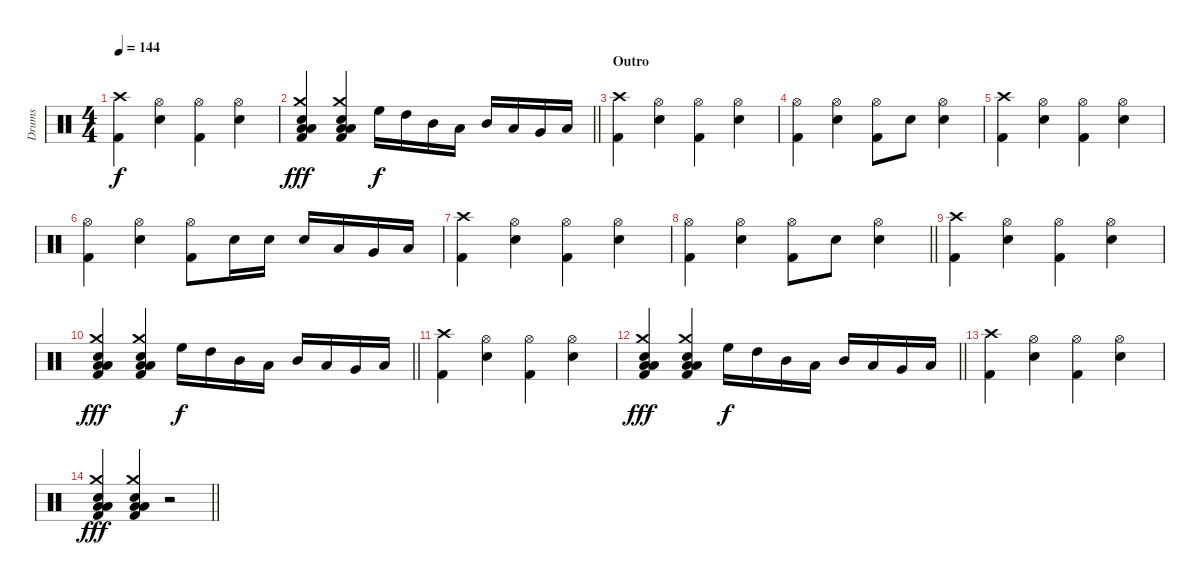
\track ("Drums" "Drums") {instrument percussion}
\staff {score}
\articulation defaults
\ts (4 4)
\tempo 144
\clef neutral
\ks c
("Kick (hit) 2" "Crash high (hit)").4{dy f} ("Hi-Hat (open)" "Snare (hit) 2").4 ("Kick (hit) 2" "Hi-Hat (open)").4 ("Hi-Hat (open)" "Snare (hit) 2").4 |
\barLineRight lightlight
("Kick (hit) 2" "Crash medium (hit)" "Low Floor Tom (hit)" "Low Floor Tom (hit)" "Snare (hit) 2").4{dy fff} ("Kick (hit) 2" "Crash medium (hit)" "Low Floor Tom (hit)" "Low Floor Tom (hit)" "Snare (hit) 2").4 "High Floor Tom (hit)".16{dy f} "High Tom (hit)".16 "Mid Tom (hit)".16 "Low Tom (hit)".16 "Mid Tom (hit)".16 "Low Tom (hit)".16 "Very Low Tom (hit)".16 "Low Floor Tom (hit)".16 |
\section ("" "Outro")
("Kick (hit) 2" "Crash high (hit)").4 ("Hi-Hat (open)" "Snare (hit) 2").4 ("Kick (hit) 2" "Hi-Hat (open)").4 ("Hi-Hat (open)" "Snare (hit) 2").4 |
("Kick (hit) 2" "Hi-Hat (open)").4 ("Hi-Hat (open)" "Snare (hit) 2").4 ("Kick (hit) 2" "Hi-Hat (open)").8 "Snare (hit) 2".8 ("Hi-Hat (open)" "Snare (hit) 2").4 |
("Kick (hit) 2" "Crash high (hit)").4 ("Hi-Hat (open)" "Snare (hit) 2").4 ("Kick (hit) 2" "Hi-Hat (open)").4 ("Hi-Hat (open)" "Snare (hit) 2").4 |
("Kick (hit) 2" "Hi-Hat (open)").4 ("Hi-Hat (open)" "Snare (hit) 2").4 ("Kick (hit) 2" "Hi-Hat (open)").8 "Snare (hit) 2".16 "Snare (hit) 2".16 "Snare (hit) 2".16 "Low Tom (hit)".16 "Very Low Tom (hit)".16 "Low Floor Tom (hit)".16 |
("Kick (hit) 2" "Crash high (hit)").4 ("Hi-Hat (open)" "Snare (hit) 2").4 ("Kick (hit) 2" "Hi-Hat (open)").4 ("Hi-Hat (open)" "Snare (hit) 2").4 |
\barLineRight lightlight
("Kick (hit) 2" "Hi-Hat (open)").4 ("Hi-Hat (open)" "Snare (hit) 2").4 ("Kick (hit) 2" "Hi-Hat (open)").8 "Snare (hit) 2".8 ("Hi-Hat (open)" "Snare (hit) 2").4 |
("Kick (hit) 2" "Crash high (hit)").4 ("Hi-Hat (open)" "Snare (hit) 2").4 ("Kick (hit) 2" "Hi-Hat (open)").4 ("Hi-Hat (open)" "Snare (hit) 2").4 |
\barLineRight lightlight
("Kick (hit) 2" "Crash medium (hit)" "Low Floor Tom (hit)" "Low Floor Tom (hit)" "Snare (hit) 2").4{dy fff} ("Kick (hit) 2" "Crash medium (hit)" "Low Floor Tom (hit)" "Low Floor Tom (hit)" "Snare (hit) 2").4 "High Floor Tom (hit)".16{dy f} "High Tom (hit)".16 "Mid Tom (hit)".16 "Low Tom (hit)".16 "Mid Tom (hit)".16 "Low Tom (hit)".16 "Very Low Tom (hit)".16 "Low Floor Tom (hit)".16 |
("Kick (hit) 2" "Crash high (hit)").4 ("Hi-Hat (open)" "Snare (hit) 2").4 ("Kick (hit) 2" "Hi-Hat (open)").4 ("Hi-Hat (open)" "Snare (hit) 2").4 |
\barLineRight lightlight
("Kick (hit) 2" "Crash medium (hit)" "Low Floor Tom (hit)" "Low Floor Tom (hit)" "Snare (hit) 2").4{dy fff} ("Kick (hit) 2" "Crash medium (hit)" "Low Floor Tom (hit)" "Low Floor Tom (hit)" "Snare (hit) 2").4 "High Floor Tom (hit)".16{dy f} "High Tom (hit)".16 "Mid Tom (hit)".16 "Low Tom (hit)".16 "Mid Tom (hit)".16 "Low Tom (hit)".16 "Very Low Tom (hit)".16 "Low Floor Tom (hit)".16 |
("Kick (hit) 2" "Crash high (hit)").4 ("Hi-Hat (open)" "Snare (hit) 2").4 ("Kick (hit) 2" "Hi-Hat (open)").4 ("Hi-Hat (open)" "Snare (hit) 2").4 |
\barLineRight lightlight
("Kick (hit) 2" "Crash medium (hit)" "Low Floor Tom (hit)" "Low Floor Tom (hit)" "Snare (hit) 2").4{dy fff} ("Kick (hit) 2" "Crash medium (hit)" "Low Floor Tom (hit)" "Low Floor Tom (hit)" "Snare (hit) 2").4 r.2
